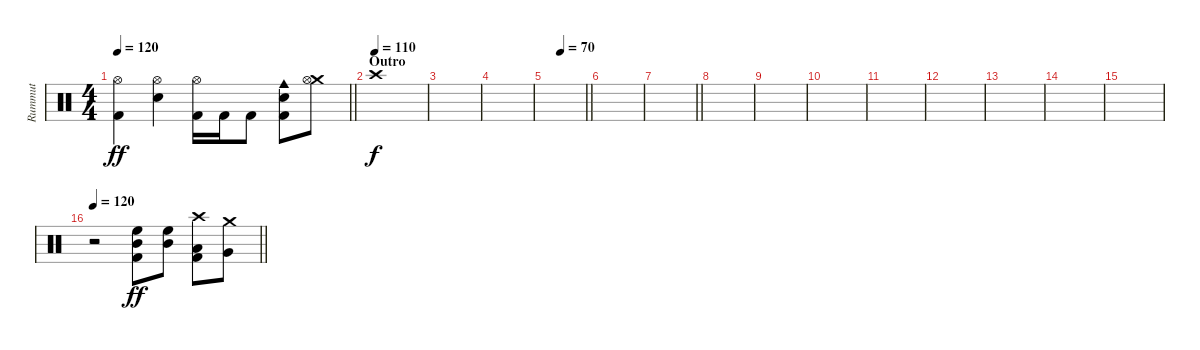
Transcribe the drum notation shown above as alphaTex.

\track ("Rummut" "Rummut") {instrument percussion}
\staff {score}
\articulation defaults
\ts (4 4)
\tempo 120
\clef neutral
\barLineRight lightlight
\ks c
("Hi-Hat (open)" "Kick (hit) 2").4{dy ff} ("Hi-Hat (open)" "Snare (hit) 2").4 ("Hi-Hat (open)" "Kick (hit) 2").16 "Kick (hit) 2".16 "Kick (hit) 2".8 ("Cowbell medium (hit)" "Snare (hit) 2" "Kick (hit) 2").8 ("Crash medium (hit)" "Hi-Hat (open)").8 |
\section ("" "Outro")
\tempo (110)
"Crash high (hit)".1{dy f} |
|
|
\tempo (70 0.375)
\barLineRight lightlight
|
|
\barLineRight lightlight
|
|
|
|
|
|
|
|
|
\tempo 120
\barLineRight lightlight
r.2 ("Mid Tom (hit)" "High Floor Tom (hit)" "Kick (hit) 2").8{dy ff} ("Mid Tom (hit)" "High Floor Tom (hit)").8 ("Low Tom (hit)" "Kick (hit) 2" "Crash high (hit)").8 ("Very Low Tom (hit)" "Crash medium (hit)").8
